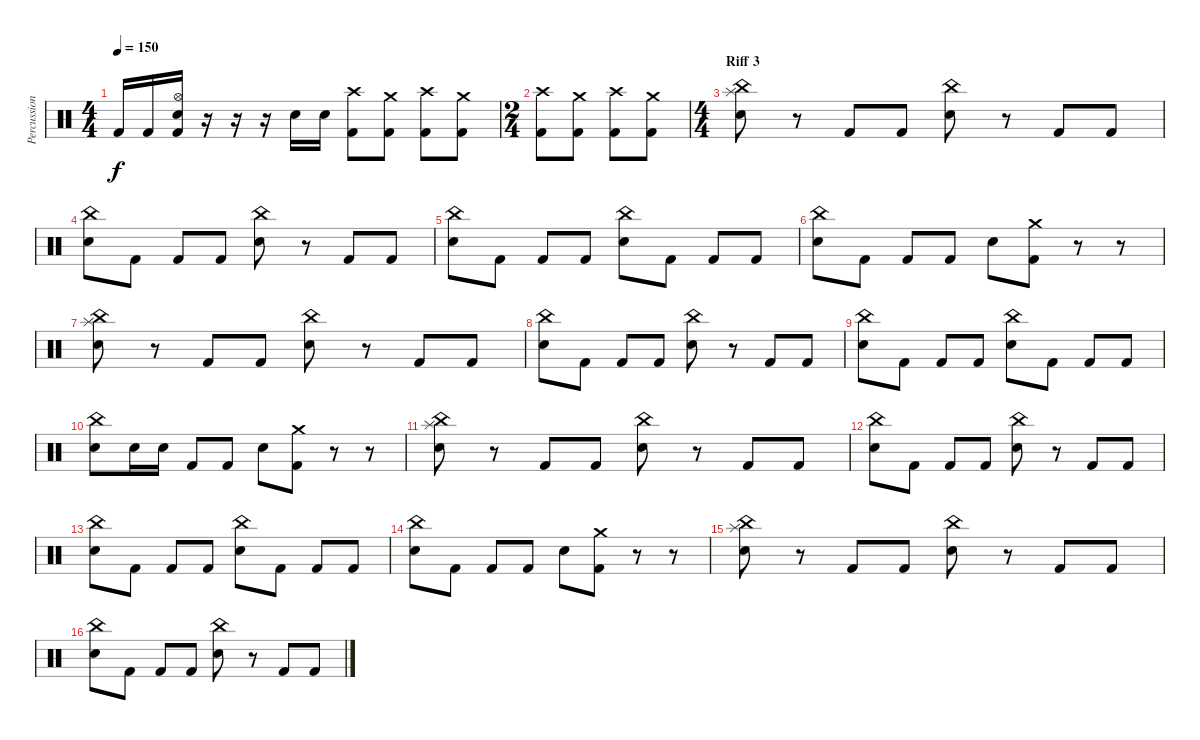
\track ("Percussion" "Percussion") {instrument percussion}
\staff {score}
\articulation defaults
\ts (4 4)
\tempo 150
\clef neutral
\ks c "Kick (hit) 2".16{dy f} "Kick (hit) 2".16
("Hi-Hat (open)" "Electric Snare (hit)" "Kick (hit) 2").16 r.16 r.16 r.16 "Electric Snare (hit)".16 "Electric Snare (hit)".16 ("Crash high (hit)" "Kick (hit) 2").8 ("Crash medium (hit)" "Kick (hit) 2").8 ("Crash high (hit)" "Kick (hit) 2").8 ("Crash medium (hit)" "Kick (hit) 2").8 |
\ts (2 4)
("Crash high (hit)" "Kick (hit) 2").8 ("Crash medium (hit)" "Kick (hit) 2").8 ("Crash high (hit)" "Kick (hit) 2").8 ("Crash medium (hit)" "Kick (hit) 2").8 |
\ts (4 4)
\section ("" "Riff 3")
("Splash (hit)" "China (hit)" "Electric Snare (hit)").8 r.8 "Kick (hit) 2".8 "Kick (hit) 2".8 ("China (hit)" "Electric Snare (hit)").8 r.8 "Kick (hit) 2".8 "Kick (hit) 2".8 |
("China (hit)" "Electric Snare (hit)").8 "Kick (hit) 2".8 "Kick (hit) 2".8 "Kick (hit) 2".8 ("China (hit)" "Electric Snare (hit)").8 r.8 "Kick (hit) 2".8 "Kick (hit) 2".8 |
("China (hit)" "Electric Snare (hit)").8 "Kick (hit) 2".8 "Kick (hit) 2".8 "Kick (hit) 2".8 ("China (hit)" "Electric Snare (hit)").8 "Kick (hit) 2".8 "Kick (hit) 2".8 "Kick (hit) 2".8 |
("China (hit)" "Electric Snare (hit)").8 "Kick (hit) 2".8 "Kick (hit) 2".8 "Kick (hit) 2".8 "Electric Snare (hit)".8 ("Crash medium (hit)" "Kick (hit) 2").8 r.8 r.8 |
("Splash (hit)" "China (hit)" "Electric Snare (hit)").8 r.8 "Kick (hit) 2".8 "Kick (hit) 2".8 ("China (hit)" "Electric Snare (hit)").8 r.8 "Kick (hit) 2".8 "Kick (hit) 2".8 |
("China (hit)" "Electric Snare (hit)").8 "Kick (hit) 2".8 "Kick (hit) 2".8 "Kick (hit) 2".8 ("China (hit)" "Electric Snare (hit)").8 r.8 "Kick (hit) 2".8 "Kick (hit) 2".8 |
("China (hit)" "Electric Snare (hit)").8 "Kick (hit) 2".8 "Kick (hit) 2".8 "Kick (hit) 2".8 ("China (hit)" "Electric Snare (hit)").8 "Kick (hit) 2".8 "Kick (hit) 2".8 "Kick (hit) 2".8 |
("China (hit)" "Electric Snare (hit)").8 "Electric Snare (hit)".16 "Electric Snare (hit)".16 "Kick (hit) 2".8 "Kick (hit) 2".8 "Electric Snare (hit)".8 ("Crash medium (hit)" "Kick (hit) 2").8 r.8 r.8 |
("Splash (hit)" "China (hit)" "Electric Snare (hit)").8 r.8 "Kick (hit) 2".8 "Kick (hit) 2".8 ("China (hit)" "Electric Snare (hit)").8 r.8 "Kick (hit) 2".8 "Kick (hit) 2".8 |
("China (hit)" "Electric Snare (hit)").8 "Kick (hit) 2".8 "Kick (hit) 2".8 "Kick (hit) 2".8 ("China (hit)" "Electric Snare (hit)").8 r.8 "Kick (hit) 2".8 "Kick (hit) 2".8 |
("China (hit)" "Electric Snare (hit)").8 "Kick (hit) 2".8 "Kick (hit) 2".8 "Kick (hit) 2".8 ("China (hit)" "Electric Snare (hit)").8 "Kick (hit) 2".8 "Kick (hit) 2".8 "Kick (hit) 2".8 |
("China (hit)" "Electric Snare (hit)").8 "Kick (hit) 2".8 "Kick (hit) 2".8 "Kick (hit) 2".8 "Electric Snare (hit)".8 ("Crash medium (hit)" "Kick (hit) 2").8 r.8 r.8 |
("Splash (hit)" "China (hit)" "Electric Snare (hit)").8 r.8 "Kick (hit) 2".8 "Kick (hit) 2".8 ("China (hit)" "Electric Snare (hit)").8 r.8 "Kick (hit) 2".8 "Kick (hit) 2".8 |
("China (hit)" "Electric Snare (hit)").8 "Kick (hit) 2".8 "Kick (hit) 2".8 "Kick (hit) 2".8 ("China (hit)" "Electric Snare (hit)").8 r.8 "Kick (hit) 2".8 "Kick (hit) 2".8
